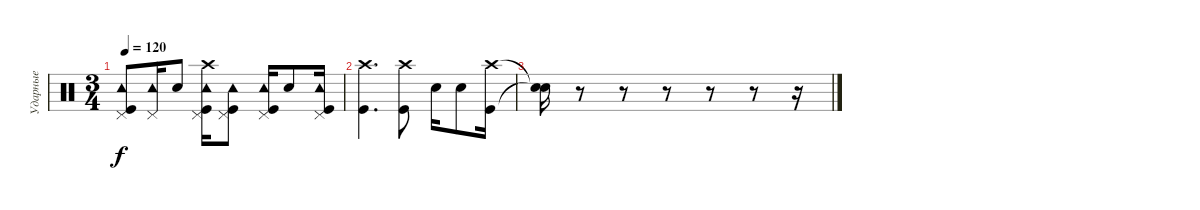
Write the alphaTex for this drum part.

\track ("Ударные" "Ударные") {instrument percussion}
\staff {score}
\articulation defaults
\ts (3 4)
\tempo 120
\clef neutral
\ks c
("Kick (hit)" "Pedal Hi-Hat (hit)" "Tambourine (hit)").8{dy f} ("Pedal Hi-Hat (hit)" "Tambourine (hit)").16 "Snare (hit) 2".8 ("Kick (hit)" "Crash high (hit)" "Pedal Hi-Hat (hit)" "Tambourine (hit)").16 ("Kick (hit)" "Pedal Hi-Hat (hit)" "Tambourine (hit)").8 ("Kick (hit)" "Pedal Hi-Hat (hit)" "Tambourine (hit)").16 "Snare (hit) 2".8 ("Kick (hit)" "Pedal Hi-Hat (hit)" "Tambourine (hit)").16 |
("Kick (hit)" "Crash high (hit)").4{d} ("Kick (hit)" "Crash high (hit)").8 "Snare (hit) 2".16 "Snare (hit) 2".8 ("Kick (hit)" "Crash high (hit)").16 |
("Snare (hit)"{t} "Snare (hit)"{t}).16 r.8 r.8 r.8 r.8 r.8 r.16
